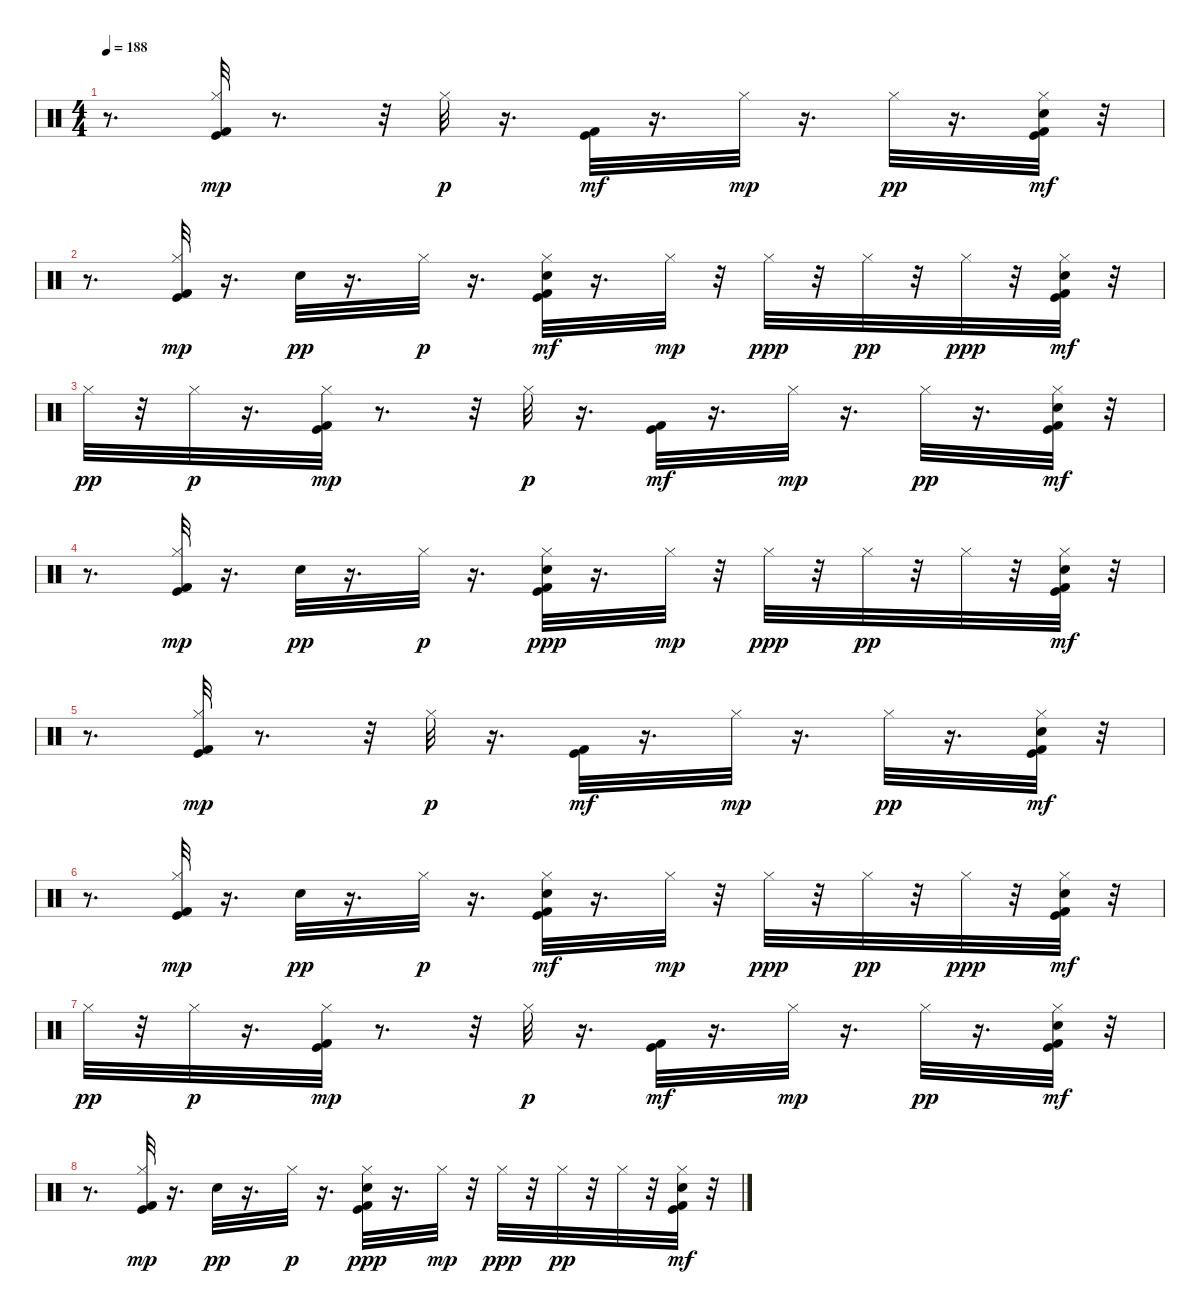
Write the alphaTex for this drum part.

\track "" {instrument percussion}
\staff {score}
\articulation defaults
\ts (4 4)
\tempo 188
\clef neutral
\ks c
r.8{d dy mf} ("Kick (hit) 2" "Hi-Hat (closed)" "Kick (hit)").32{dy mp} r.8{d} r.32 "Hi-Hat (closed)".32{dy p} r.16{d} ("Kick (hit) 2" "Kick (hit)").32{dy mf} r.16{d} "Hi-Hat (closed)".32{dy mp} r.16{d} "Hi-Hat (closed)".32{dy pp} r.16{d} ("Kick (hit) 2" "Hi-Hat (closed)" "Electric Snare (hit)" "Kick (hit)").32{dy mf} r.32 |
r.8{d} ("Kick (hit) 2" "Hi-Hat (closed)" "Kick (hit)").32{dy mp} r.16{d} "Electric Snare (hit)".32{dy pp} r.16{d} "Hi-Hat (closed)".32{dy p} r.16{d} ("Kick (hit) 2" "Electric Snare (hit)" "Hi-Hat (closed)" "Kick (hit)").32{dy mf} r.16{d} "Hi-Hat (closed)".32{dy mp} r.32 "Hi-Hat (closed)".32{dy ppp} r.32 "Hi-Hat (closed)".32{dy pp} r.32 "Hi-Hat (closed)".32{dy ppp} r.32 ("Kick (hit) 2" "Electric Snare (hit)" "Hi-Hat (closed)" "Kick (hit)").32{dy mf} r.32 |
"Hi-Hat (closed)".32{dy pp} r.32 "Hi-Hat (closed)".32{dy p} r.16{d} ("Kick (hit) 2" "Hi-Hat (closed)" "Kick (hit)").32{dy mp} r.8{d} r.32 "Hi-Hat (closed)".32{dy p} r.16{d} ("Kick (hit) 2" "Kick (hit)").32{dy mf} r.16{d} "Hi-Hat (closed)".32{dy mp} r.16{d} "Hi-Hat (closed)".32{dy pp} r.16{d} ("Kick (hit) 2" "Hi-Hat (closed)" "Electric Snare (hit)" "Kick (hit)").32{dy mf} r.32 |
r.8{d} ("Kick (hit) 2" "Hi-Hat (closed)" "Kick (hit)").32{dy mp} r.16{d} "Electric Snare (hit)".32{dy pp} r.16{d} "Hi-Hat (closed)".32{dy p} r.16{d} ("Kick (hit) 2" "Electric Snare (hit)" "Hi-Hat (closed)" "Kick (hit)").32{dy ppp} r.16{d} "Hi-Hat (closed)".32{dy mp} r.32 "Hi-Hat (closed)".32{dy ppp} r.32 "Hi-Hat (closed)".32{dy pp} r.32 "Hi-Hat (closed)".32 r.32 ("Kick (hit) 2" "Hi-Hat (closed)" "Electric Snare (hit)" "Kick (hit)").32{dy mf} r.32 |
r.8{d} ("Kick (hit) 2" "Hi-Hat (closed)" "Kick (hit)").32{dy mp} r.8{d} r.32 "Hi-Hat (closed)".32{dy p} r.16{d} ("Kick (hit) 2" "Kick (hit)").32{dy mf} r.16{d} "Hi-Hat (closed)".32{dy mp} r.16{d} "Hi-Hat (closed)".32{dy pp} r.16{d} ("Kick (hit) 2" "Hi-Hat (closed)" "Electric Snare (hit)" "Kick (hit)").32{dy mf} r.32 |
r.8{d} ("Kick (hit) 2" "Hi-Hat (closed)" "Kick (hit)").32{dy mp} r.16{d} "Electric Snare (hit)".32{dy pp} r.16{d} "Hi-Hat (closed)".32{dy p} r.16{d} ("Kick (hit) 2" "Electric Snare (hit)" "Hi-Hat (closed)" "Kick (hit)").32{dy mf} r.16{d} "Hi-Hat (closed)".32{dy mp} r.32 "Hi-Hat (closed)".32{dy ppp} r.32 "Hi-Hat (closed)".32{dy pp} r.32 "Hi-Hat (closed)".32{dy ppp} r.32 ("Kick (hit) 2" "Electric Snare (hit)" "Hi-Hat (closed)" "Kick (hit)").32{dy mf} r.32 |
"Hi-Hat (closed)".32{dy pp} r.32 "Hi-Hat (closed)".32{dy p} r.16{d} ("Kick (hit) 2" "Hi-Hat (closed)" "Kick (hit)").32{dy mp} r.8{d} r.32 "Hi-Hat (closed)".32{dy p} r.16{d} ("Kick (hit) 2" "Kick (hit)").32{dy mf} r.16{d} "Hi-Hat (closed)".32{dy mp} r.16{d} "Hi-Hat (closed)".32{dy pp} r.16{d} ("Kick (hit) 2" "Hi-Hat (closed)" "Electric Snare (hit)" "Kick (hit)").32{dy mf} r.32 |
r.8{d} ("Kick (hit) 2" "Hi-Hat (closed)" "Kick (hit)").32{dy mp} r.16{d} "Electric Snare (hit)".32{dy pp} r.16{d} "Hi-Hat (closed)".32{dy p} r.16{d} ("Kick (hit) 2" "Electric Snare (hit)" "Hi-Hat (closed)" "Kick (hit)").32{dy ppp} r.16{d} "Hi-Hat (closed)".32{dy mp} r.32 "Hi-Hat (closed)".32{dy ppp} r.32 "Hi-Hat (closed)".32{dy pp} r.32 "Hi-Hat (closed)".32 r.32 ("Kick (hit) 2" "Hi-Hat (closed)" "Electric Snare (hit)" "Kick (hit)").32{dy mf} r.32
